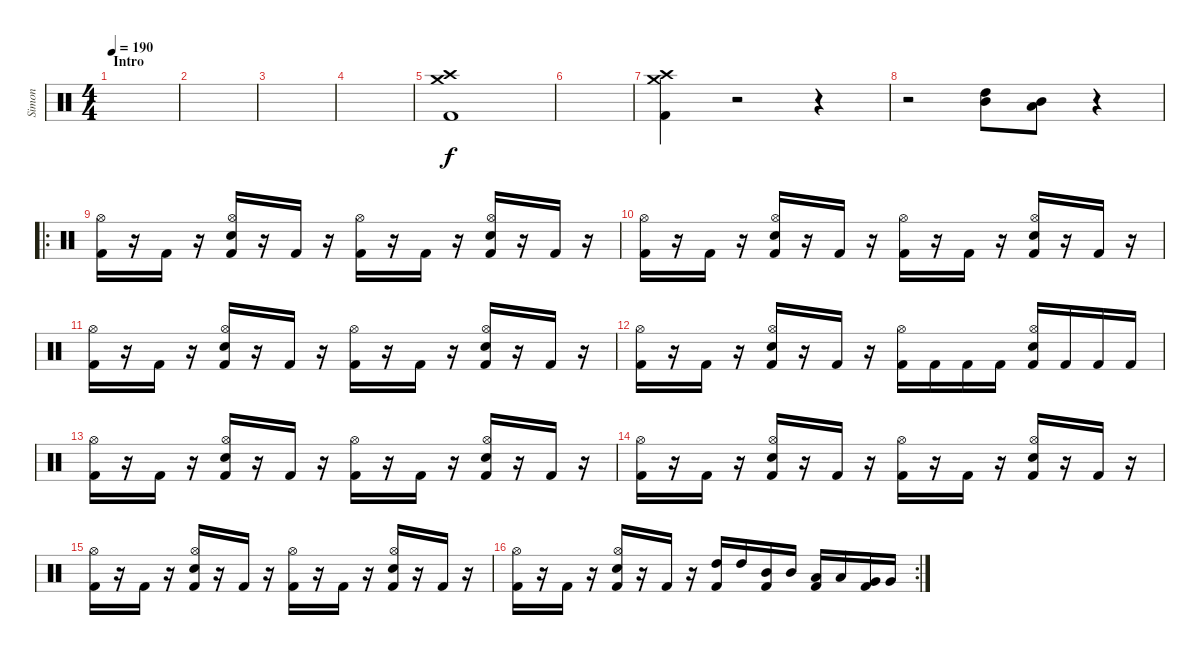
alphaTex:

\track ("Simon" "Simon") {instrument percussion}
\staff {score}
\articulation defaults
\ts (4 4)
\section ("" "Intro")
\tempo 190
\clef neutral
\ks c
|
|
|
|
("Crash high (hit)" "Crash medium (hit)" "Kick (hit) 2").1 |
|
("Crash high (hit)" "Crash medium (hit)" "Kick (hit) 2").4 r.2 r.4 |
r.2 ("High Tom (hit)" "Mid Tom (hit)").8 ("Mid Tom (hit)" "Low Tom (hit)").8 r.4 |
\ro
("Hi-Hat (open)" "Kick (hit) 2").16 r.16 "Kick (hit) 2".16 r.16 ("Hi-Hat (open)" "Snare (hit) 2" "Kick (hit) 2").16 r.16 "Kick (hit) 2".16 r.16 ("Hi-Hat (open)" "Kick (hit) 2").16 r.16 "Kick (hit) 2".16 r.16 ("Hi-Hat (open)" "Snare (hit) 2" "Kick (hit) 2").16 r.16 "Kick (hit) 2".16 r.16 |
("Hi-Hat (open)" "Kick (hit) 2").16 r.16 "Kick (hit) 2".16 r.16 ("Hi-Hat (open)" "Snare (hit) 2" "Kick (hit) 2").16 r.16 "Kick (hit) 2".16 r.16 ("Hi-Hat (open)" "Kick (hit) 2").16 r.16 "Kick (hit) 2".16 r.16 ("Hi-Hat (open)" "Snare (hit) 2" "Kick (hit) 2").16 r.16 "Kick (hit) 2".16 r.16 |
("Hi-Hat (open)" "Kick (hit) 2").16 r.16 "Kick (hit) 2".16 r.16 ("Hi-Hat (open)" "Snare (hit) 2" "Kick (hit) 2").16 r.16 "Kick (hit) 2".16 r.16 ("Hi-Hat (open)" "Kick (hit) 2").16 r.16 "Kick (hit) 2".16 r.16 ("Hi-Hat (open)" "Snare (hit) 2" "Kick (hit) 2").16 r.16 "Kick (hit) 2".16 r.16 |
("Hi-Hat (open)" "Kick (hit) 2").16 r.16 "Kick (hit) 2".16 r.16 ("Hi-Hat (open)" "Snare (hit) 2" "Kick (hit) 2").16 r.16 "Kick (hit) 2".16 r.16 ("Hi-Hat (open)" "Kick (hit) 2").16 "Kick (hit) 2".16 "Kick (hit) 2".16 "Kick (hit) 2".16 ("Hi-Hat (open)" "Snare (hit) 2" "Kick (hit) 2").16 "Kick (hit) 2".16 "Kick (hit) 2".16 "Kick (hit) 2".16 |
("Hi-Hat (open)" "Kick (hit) 2").16 r.16 "Kick (hit) 2".16 r.16 ("Hi-Hat (open)" "Snare (hit) 2" "Kick (hit) 2").16 r.16 "Kick (hit) 2".16 r.16 ("Hi-Hat (open)" "Kick (hit) 2").16 r.16 "Kick (hit) 2".16 r.16 ("Hi-Hat (open)" "Snare (hit) 2" "Kick (hit) 2").16 r.16 "Kick (hit) 2".16 r.16 |
("Hi-Hat (open)" "Kick (hit) 2").16 r.16 "Kick (hit) 2".16 r.16 ("Hi-Hat (open)" "Snare (hit) 2" "Kick (hit) 2").16 r.16 "Kick (hit) 2".16 r.16 ("Hi-Hat (open)" "Kick (hit) 2").16 r.16 "Kick (hit) 2".16 r.16 ("Hi-Hat (open)" "Snare (hit) 2" "Kick (hit) 2").16 r.16 "Kick (hit) 2".16 r.16 |
("Hi-Hat (open)" "Kick (hit) 2").16 r.16 "Kick (hit) 2".16 r.16 ("Hi-Hat (open)" "Snare (hit) 2" "Kick (hit) 2").16 r.16 "Kick (hit) 2".16 r.16 ("Hi-Hat (open)" "Kick (hit) 2").16 r.16 "Kick (hit) 2".16 r.16 ("Hi-Hat (open)" "Snare (hit) 2" "Kick (hit) 2").16 r.16 "Kick (hit) 2".16 r.16 |
\rc 2
("Hi-Hat (open)" "Kick (hit) 2").16 r.16 "Kick (hit) 2".16 r.16 ("Hi-Hat (open)" "Snare (hit) 2" "Kick (hit) 2").16 r.16 "Kick (hit) 2".16 r.16 ("High Tom (hit)" "Kick (hit) 2").16 "High Tom (hit)".16 ("Mid Tom (hit)" "Kick (hit) 2").16 "Mid Tom (hit)".16 ("Low Tom (hit)" "Kick (hit) 2").16 "Low Tom (hit)".16 ("Very Low Tom (hit)" "Kick (hit) 2").16 "Very Low Tom (hit)".16
